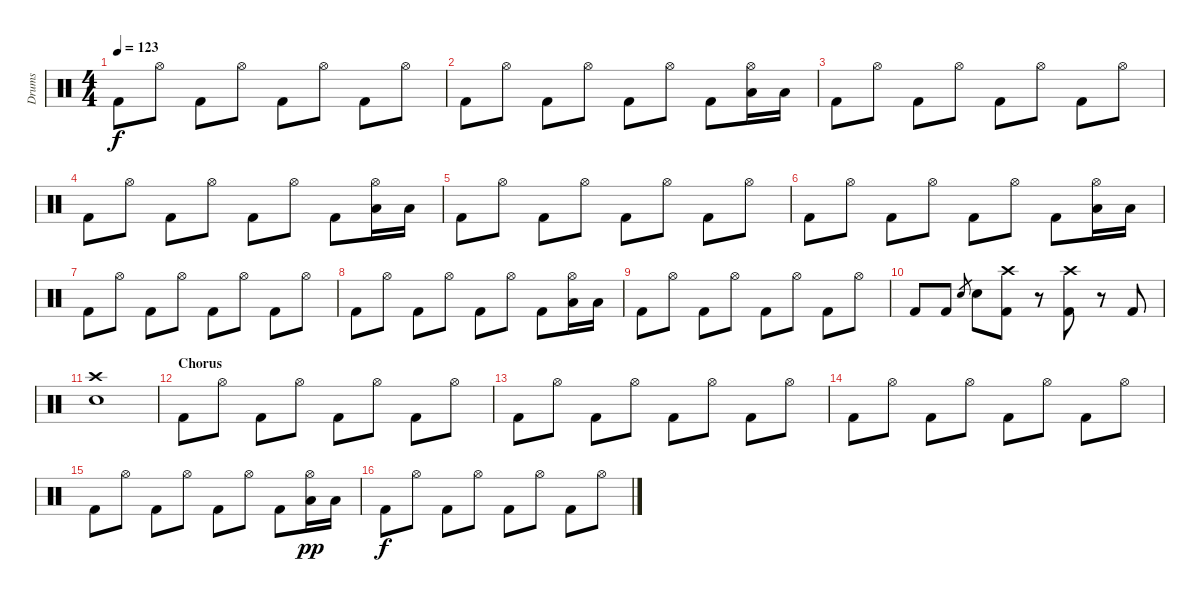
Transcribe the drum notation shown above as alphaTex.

\track ("Drums" "Drums") {instrument percussion}
\staff {score}
\articulation defaults
\ts (4 4)
\tempo 123
\clef neutral
\ks c "Kick (hit) 2".8{dy f} "Hi-Hat (open)".8 "Kick (hit) 2".8 "Hi-Hat (open)".8 "Kick (hit) 2".8 "Hi-Hat (open)".8 "Kick (hit) 2".8 "Hi-Hat (open)".8
|
"Kick (hit) 2".8 "Hi-Hat (open)".8 "Kick (hit) 2".8 "Hi-Hat (open)".8 "Kick (hit) 2".8 "Hi-Hat (open)".8 "Kick (hit) 2".8 ("Hi-Hat (open)" "Low Tom (hit)").16 "Low Tom (hit)".16 |
"Kick (hit) 2".8 "Hi-Hat (open)".8 "Kick (hit) 2".8 "Hi-Hat (open)".8 "Kick (hit) 2".8 "Hi-Hat (open)".8 "Kick (hit) 2".8 "Hi-Hat (open)".8 |
"Kick (hit) 2".8 "Hi-Hat (open)".8 "Kick (hit) 2".8 "Hi-Hat (open)".8 "Kick (hit) 2".8 "Hi-Hat (open)".8 "Kick (hit) 2".8 ("Hi-Hat (open)" "Low Tom (hit)").16 "Low Tom (hit)".16 |
"Kick (hit) 2".8 "Hi-Hat (open)".8 "Kick (hit) 2".8 "Hi-Hat (open)".8 "Kick (hit) 2".8 "Hi-Hat (open)".8 "Kick (hit) 2".8 "Hi-Hat (open)".8 |
"Kick (hit) 2".8 "Hi-Hat (open)".8 "Kick (hit) 2".8 "Hi-Hat (open)".8 "Kick (hit) 2".8 "Hi-Hat (open)".8 "Kick (hit) 2".8 ("Hi-Hat (open)" "Low Tom (hit)").16 "Low Tom (hit)".16 |
"Kick (hit) 2".8 "Hi-Hat (open)".8 "Kick (hit) 2".8 "Hi-Hat (open)".8 "Kick (hit) 2".8 "Hi-Hat (open)".8 "Kick (hit) 2".8 "Hi-Hat (open)".8 |
"Kick (hit) 2".8 "Hi-Hat (open)".8 "Kick (hit) 2".8 "Hi-Hat (open)".8 "Kick (hit) 2".8 "Hi-Hat (open)".8 "Kick (hit) 2".8 ("Hi-Hat (open)" "Low Tom (hit)").16 "Low Tom (hit)".16 |
"Kick (hit) 2".8 "Hi-Hat (open)".8 "Kick (hit) 2".8 "Hi-Hat (open)".8 "Kick (hit) 2".8 "Hi-Hat (open)".8 "Kick (hit) 2".8 "Hi-Hat (open)".8 |
"Kick (hit) 2".8 "Kick (hit) 2".8 "Electric Snare (hit)".8{gr} "Electric Snare (hit)".8 ("Crash high (hit)" "Kick (hit) 2").8 r.8 ("Crash high (hit)" "Kick (hit) 2").8 r.8 "Kick (hit) 2".8 |
("Crash high (hit)" "Electric Snare (hit)").1 |
\section ("" "Chorus")
"Kick (hit) 2".8 "Hi-Hat (open)".8 "Kick (hit) 2".8 "Hi-Hat (open)".8 "Kick (hit) 2".8 "Hi-Hat (open)".8 "Kick (hit) 2".8 "Hi-Hat (open)".8 |
"Kick (hit) 2".8 "Hi-Hat (open)".8 "Kick (hit) 2".8 "Hi-Hat (open)".8 "Kick (hit) 2".8 "Hi-Hat (open)".8 "Kick (hit) 2".8 "Hi-Hat (open)".8 |
"Kick (hit) 2".8 "Hi-Hat (open)".8 "Kick (hit) 2".8 "Hi-Hat (open)".8 "Kick (hit) 2".8 "Hi-Hat (open)".8 "Kick (hit) 2".8 "Hi-Hat (open)".8 |
"Kick (hit) 2".8 "Hi-Hat (open)".8 "Kick (hit) 2".8 "Hi-Hat (open)".8 "Kick (hit) 2".8 "Hi-Hat (open)".8 "Kick (hit) 2".8 ("Hi-Hat (open)" "Low Tom (hit)").16{dy pp} "Low Tom (hit)".16 |
"Kick (hit) 2".8{dy f} "Hi-Hat (open)".8 "Kick (hit) 2".8 "Hi-Hat (open)".8 "Kick (hit) 2".8 "Hi-Hat (open)".8 "Kick (hit) 2".8 "Hi-Hat (open)".8
